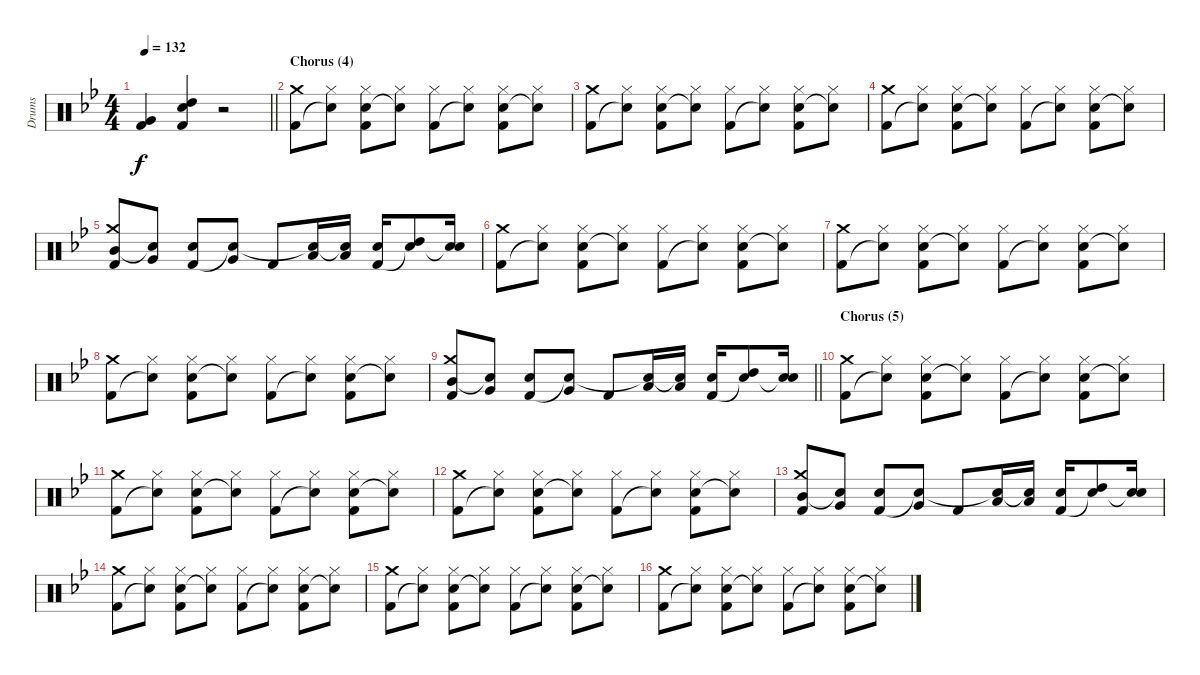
\track ("Drums" "Drums") {instrument percussion}
\staff {score}
\articulation defaults
\ts (4 4)
\tempo 132
\clef neutral
\barLineRight lightlight
\ks bb
("Very Low Tom (hit)" "Kick (hit) 2").4{dy f} ("High Tom (hit)" "Electric Snare (hit)" "Kick (hit) 2").4 r.2 |
\section ("" "Chorus (4)")
("Crash medium (hit)" "Kick (hit) 2").8 ("Hi-Hat (closed)" "Snare (hit)"{t}).8 ("Hi-Hat (closed)" "Electric Snare (hit)" "Kick (hit) 2").8 ("Hi-Hat (closed)" "Snare (hit)"{t}).8 ("Hi-Hat (closed)" "Kick (hit) 2").8 ("Hi-Hat (closed)" "Snare (hit)"{t}).8 ("Hi-Hat (closed)" "Electric Snare (hit)" "Kick (hit) 2").8 ("Hi-Hat (closed)" "Snare (hit)"{t}).8 |
("Crash medium (hit)" "Kick (hit) 2").8 ("Hi-Hat (closed)" "Snare (hit)"{t}).8 ("Hi-Hat (closed)" "Electric Snare (hit)" "Kick (hit) 2").8 ("Hi-Hat (closed)" "Snare (hit)"{t}).8 ("Hi-Hat (closed)" "Kick (hit) 2").8 ("Hi-Hat (closed)" "Snare (hit)"{t}).8 ("Hi-Hat (closed)" "Electric Snare (hit)" "Kick (hit) 2").8 ("Hi-Hat (closed)" "Snare (hit)"{t}).8 |
("Crash medium (hit)" "Kick (hit) 2").8 ("Hi-Hat (closed)" "Snare (hit)"{t}).8 ("Hi-Hat (closed)" "Electric Snare (hit)" "Kick (hit) 2").8 ("Hi-Hat (closed)" "Snare (hit)"{t}).8 ("Hi-Hat (closed)" "Kick (hit) 2").8 ("Hi-Hat (closed)" "Snare (hit)"{t}).8 ("Hi-Hat (closed)" "Electric Snare (hit)" "Kick (hit) 2").8 ("Hi-Hat (closed)" "Snare (hit)"{t}).8 |
("Crash medium (hit)" "Mid Tom (hit)" "Kick (hit) 2").8 ("Very Low Tom (hit)" "Snare (hit)"{t}).8 ("Electric Snare (hit)" "Kick (hit) 2").8 ("Very Low Tom (hit)" "Snare (hit)"{t}).8 "Kick (hit) 2".8 ("Low Floor Tom (hit)" "Snare (hit)"{t}).16 ("Low Floor Tom (hit)" "Snare (hit)"{t}).16 ("Electric Snare (hit)" "Kick (hit) 2").16 ("High Tom (hit)" "Snare (hit)"{t}).8 ("Electric Snare (hit)" "Snare (hit)"{t}).16 |
("Crash medium (hit)" "Kick (hit) 2").8 ("Hi-Hat (closed)" "Snare (hit)"{t}).8 ("Hi-Hat (closed)" "Electric Snare (hit)" "Kick (hit) 2").8 ("Hi-Hat (closed)" "Snare (hit)"{t}).8 ("Hi-Hat (closed)" "Kick (hit) 2").8 ("Hi-Hat (closed)" "Snare (hit)"{t}).8 ("Hi-Hat (closed)" "Electric Snare (hit)" "Kick (hit) 2").8 ("Hi-Hat (closed)" "Snare (hit)"{t}).8 |
("Crash medium (hit)" "Kick (hit) 2").8 ("Hi-Hat (closed)" "Snare (hit)"{t}).8 ("Hi-Hat (closed)" "Electric Snare (hit)" "Kick (hit) 2").8 ("Hi-Hat (closed)" "Snare (hit)"{t}).8 ("Hi-Hat (closed)" "Kick (hit) 2").8 ("Hi-Hat (closed)" "Snare (hit)"{t}).8 ("Hi-Hat (closed)" "Electric Snare (hit)" "Kick (hit) 2").8 ("Hi-Hat (closed)" "Snare (hit)"{t}).8 |
("Crash medium (hit)" "Kick (hit) 2").8 ("Hi-Hat (closed)" "Snare (hit)"{t}).8 ("Hi-Hat (closed)" "Electric Snare (hit)" "Kick (hit) 2").8 ("Hi-Hat (closed)" "Snare (hit)"{t}).8 ("Hi-Hat (closed)" "Kick (hit) 2").8 ("Hi-Hat (closed)" "Snare (hit)"{t}).8 ("Hi-Hat (closed)" "Electric Snare (hit)" "Kick (hit) 2").8 ("Hi-Hat (closed)" "Snare (hit)"{t}).8 |
\barLineRight lightlight
("Crash medium (hit)" "Mid Tom (hit)" "Kick (hit) 2").8 ("Very Low Tom (hit)" "Snare (hit)"{t}).8 ("Electric Snare (hit)" "Kick (hit) 2").8 ("Very Low Tom (hit)" "Snare (hit)"{t}).8 "Kick (hit) 2".8 ("Low Floor Tom (hit)" "Snare (hit)"{t}).16 ("Low Floor Tom (hit)" "Snare (hit)"{t}).16 ("Electric Snare (hit)" "Kick (hit) 2").16 ("High Tom (hit)" "Snare (hit)"{t}).8 ("Electric Snare (hit)" "Snare (hit)"{t}).16 |
\section ("" "Chorus (5)")
("Crash medium (hit)" "Kick (hit) 2").8 ("Hi-Hat (closed)" "Snare (hit)"{t}).8 ("Hi-Hat (closed)" "Electric Snare (hit)" "Kick (hit) 2").8 ("Hi-Hat (closed)" "Snare (hit)"{t}).8 ("Hi-Hat (closed)" "Kick (hit) 2").8 ("Hi-Hat (closed)" "Snare (hit)"{t}).8 ("Hi-Hat (closed)" "Electric Snare (hit)" "Kick (hit) 2").8 ("Hi-Hat (closed)" "Snare (hit)"{t}).8 |
("Crash medium (hit)" "Kick (hit) 2").8 ("Hi-Hat (closed)" "Snare (hit)"{t}).8 ("Hi-Hat (closed)" "Electric Snare (hit)" "Kick (hit) 2").8 ("Hi-Hat (closed)" "Snare (hit)"{t}).8 ("Hi-Hat (closed)" "Kick (hit) 2").8 ("Hi-Hat (closed)" "Snare (hit)"{t}).8 ("Hi-Hat (closed)" "Electric Snare (hit)" "Kick (hit) 2").8 ("Hi-Hat (closed)" "Snare (hit)"{t}).8 |
("Crash medium (hit)" "Kick (hit) 2").8 ("Hi-Hat (closed)" "Snare (hit)"{t}).8 ("Hi-Hat (closed)" "Electric Snare (hit)" "Kick (hit) 2").8 ("Hi-Hat (closed)" "Snare (hit)"{t}).8 ("Hi-Hat (closed)" "Kick (hit) 2").8 ("Hi-Hat (closed)" "Snare (hit)"{t}).8 ("Hi-Hat (closed)" "Electric Snare (hit)" "Kick (hit) 2").8 ("Hi-Hat (closed)" "Snare (hit)"{t}).8 |
("Crash medium (hit)" "Mid Tom (hit)" "Kick (hit) 2").8 ("Very Low Tom (hit)" "Snare (hit)"{t}).8 ("Electric Snare (hit)" "Kick (hit) 2").8 ("Very Low Tom (hit)" "Snare (hit)"{t}).8 "Kick (hit) 2".8 ("Low Floor Tom (hit)" "Snare (hit)"{t}).16 ("Low Floor Tom (hit)" "Snare (hit)"{t}).16 ("Electric Snare (hit)" "Kick (hit) 2").16 ("High Tom (hit)" "Snare (hit)"{t}).8 ("Electric Snare (hit)" "Snare (hit)"{t}).16 |
("Crash medium (hit)" "Kick (hit) 2").8 ("Hi-Hat (closed)" "Snare (hit)"{t}).8 ("Hi-Hat (closed)" "Electric Snare (hit)" "Kick (hit) 2").8 ("Hi-Hat (closed)" "Snare (hit)"{t}).8 ("Hi-Hat (closed)" "Kick (hit) 2").8 ("Hi-Hat (closed)" "Snare (hit)"{t}).8 ("Hi-Hat (closed)" "Electric Snare (hit)" "Kick (hit) 2").8 ("Hi-Hat (closed)" "Snare (hit)"{t}).8 |
("Crash medium (hit)" "Kick (hit) 2").8 ("Hi-Hat (closed)" "Snare (hit)"{t}).8 ("Hi-Hat (closed)" "Electric Snare (hit)" "Kick (hit) 2").8 ("Hi-Hat (closed)" "Snare (hit)"{t}).8 ("Hi-Hat (closed)" "Kick (hit) 2").8 ("Hi-Hat (closed)" "Snare (hit)"{t}).8 ("Hi-Hat (closed)" "Electric Snare (hit)" "Kick (hit) 2").8 ("Hi-Hat (closed)" "Snare (hit)"{t}).8 |
("Crash medium (hit)" "Kick (hit) 2").8 ("Hi-Hat (closed)" "Snare (hit)"{t}).8 ("Hi-Hat (closed)" "Electric Snare (hit)" "Kick (hit) 2").8 ("Hi-Hat (closed)" "Snare (hit)"{t}).8 ("Hi-Hat (closed)" "Kick (hit) 2").8 ("Hi-Hat (closed)" "Snare (hit)"{t}).8 ("Hi-Hat (closed)" "Electric Snare (hit)" "Kick (hit) 2").8 ("Hi-Hat (closed)" "Snare (hit)"{t}).8
